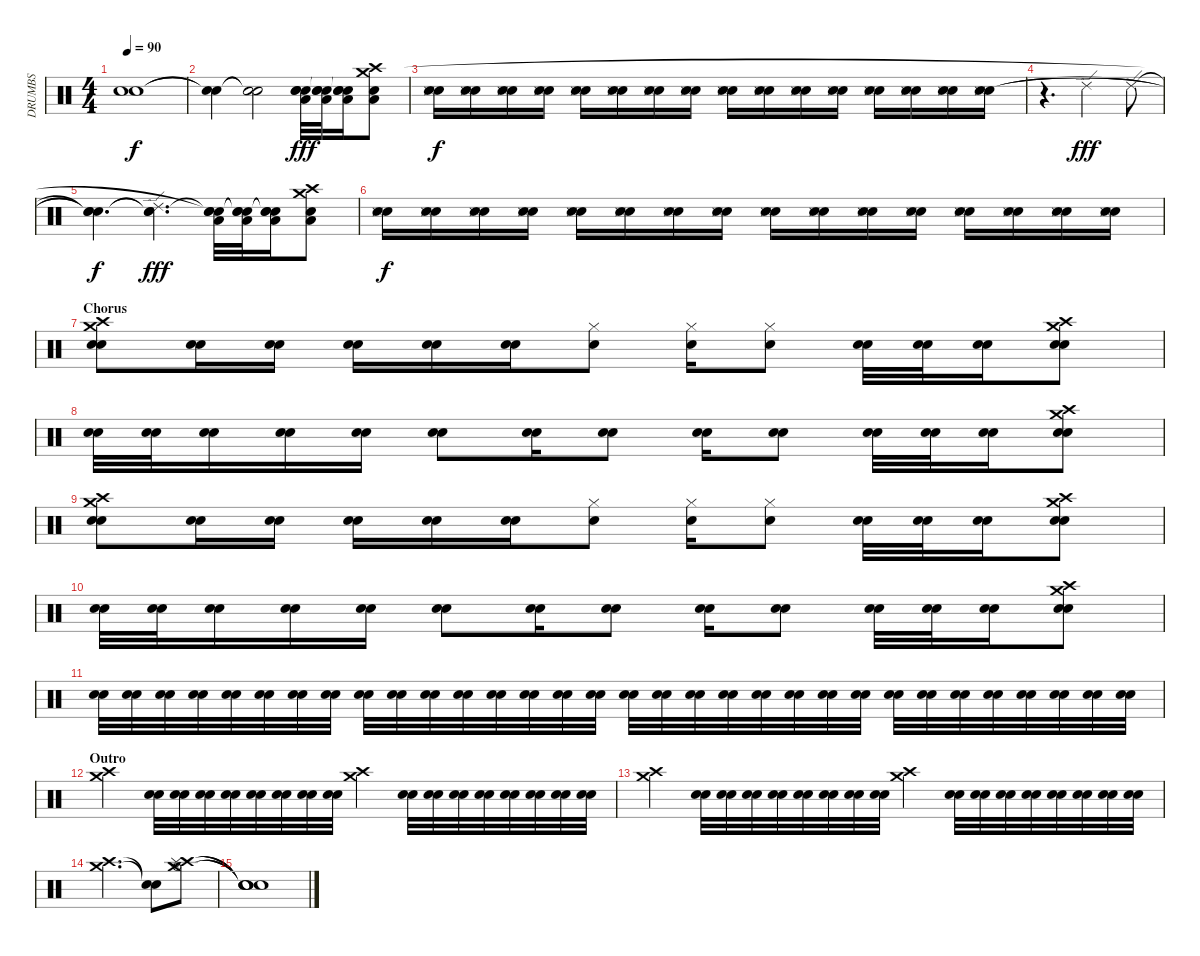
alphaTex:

\track ("DRUMBS" "DRUMBS") {instrument percussion}
\staff {score}
\articulation defaults
\ts (4 4)
\tempo 90
\clef neutral
\ks c
("Snare (hit)"{t} "Snare (hit)"{t}).1{dy f} |
("Snare (hit)"{t} "Snare (hit)"{t}).4 ("Snare (hit)"{t} "Snare (hit)"{t}).2 ("Electric Snare (hit)" "Low Tom (hit)" "Snare (hit)"{t} "Snare (hit)"{t}).32{dy fff} ("Electric Snare (hit)" "Low Tom (hit)" "Snare (hit)"{t} "Snare (hit)"{t}).32 ("Electric Snare (hit)" "Low Tom (hit)" "Snare (hit)"{t} "Snare (hit)"{t}).16 ("Electric Snare (hit)" "Low Tom (hit)" "Crash high (hit)" "Crash medium (hit)").8 |
("Electric Snare (hit)" "Snare (side stick) 3" "Snare (hit) 2").16{dy f} ("Electric Snare (hit)" "Snare (side stick) 3" "Snare (hit) 2").16 ("Electric Snare (hit)" "Snare (side stick) 3" "Snare (hit) 2").16 ("Electric Snare (hit)" "Snare (side stick) 3" "Snare (hit) 2").16 ("Electric Snare (hit)" "Snare (side stick) 3" "Snare (hit) 2").16 ("Electric Snare (hit)" "Snare (side stick) 3" "Snare (hit) 2").16 ("Electric Snare (hit)" "Snare (side stick) 3" "Snare (hit) 2").16 ("Electric Snare (hit)" "Snare (side stick) 3" "Snare (hit) 2").16 ("Electric Snare (hit)" "Snare (side stick) 3" "Snare (hit) 2").16 ("Electric Snare (hit)" "Snare (side stick) 3" "Snare (hit) 2").16 ("Electric Snare (hit)" "Snare (side stick) 3" "Snare (hit) 2").16 ("Electric Snare (hit)" "Snare (side stick) 3" "Snare (hit) 2").16 ("Electric Snare (hit)" "Snare (side stick) 3" "Snare (hit) 2").16 ("Electric Snare (hit)" "Snare (side stick) 3" "Snare (hit) 2").16 ("Electric Snare (hit)" "Snare (side stick) 3" "Snare (hit) 2").16 ("Electric Snare (hit)" "Snare (side stick) 3" "Snare (hit) 2").16 |
r.4{d} "Ride (edge) 2".2{dy fff} "Ride (edge) 2".8 |
("Snare (hit)"{t} "Snare (hit)"{t} "Snare (hit)"{t}).4{d dy f} ("Ride (edge) 2" "Snare (hit)"{t} "Snare (hit)"{t}).4{d dy fff} ("Electric Snare (hit)" "Low Tom (hit)" "Snare (hit)"{t} "Snare (hit)"{t}).32 ("Electric Snare (hit)" "Low Tom (hit)" "Snare (hit)"{t} "Snare (hit)"{t}).32 ("Electric Snare (hit)" "Low Tom (hit)" "Snare (hit)"{t} "Snare (hit)"{t}).16 ("Electric Snare (hit)" "Low Tom (hit)" "Crash high (hit)" "Crash medium (hit)").8 |
("Electric Snare (hit)" "Snare (side stick) 3" "Snare (hit) 2").16{dy f volume 10} ("Electric Snare (hit)" "Snare (side stick) 3" "Snare (hit) 2").16 ("Electric Snare (hit)" "Snare (side stick) 3" "Snare (hit) 2").16 ("Electric Snare (hit)" "Snare (side stick) 3" "Snare (hit) 2").16 ("Electric Snare (hit)" "Snare (side stick) 3" "Snare (hit) 2").16 ("Electric Snare (hit)" "Snare (side stick) 3" "Snare (hit) 2").16 ("Electric Snare (hit)" "Snare (side stick) 3" "Snare (hit) 2").16 ("Electric Snare (hit)" "Snare (side stick) 3" "Snare (hit) 2").16 ("Electric Snare (hit)" "Snare (side stick) 3" "Snare (hit) 2").16 ("Electric Snare (hit)" "Snare (side stick) 3" "Snare (hit) 2").16 ("Electric Snare (hit)" "Snare (side stick) 3" "Snare (hit) 2").16 ("Electric Snare (hit)" "Snare (side stick) 3" "Snare (hit) 2").16 ("Electric Snare (hit)" "Snare (side stick) 3" "Snare (hit) 2").16 ("Electric Snare (hit)" "Snare (side stick) 3" "Snare (hit) 2").16 ("Electric Snare (hit)" "Snare (side stick) 3" "Snare (hit) 2").16 ("Electric Snare (hit)" "Snare (side stick) 3" "Snare (hit) 2").16 |
\section ("" "Chorus")
("Electric Snare (hit)" "Snare (hit) 2" "Crash medium (hit)" "Crash high (hit)").8 ("Electric Snare (hit)" "Snare (hit) 2").16 ("Electric Snare (hit)" "Snare (hit) 2").16 ("Electric Snare (hit)" "Snare (hit) 2").16 ("Electric Snare (hit)" "Snare (hit) 2").16 ("Electric Snare (hit)" "Snare (hit) 2").16 ("Snare (hit) 2" "Hi-Hat (closed)").8 ("Snare (hit) 2" "Hi-Hat (closed)").16 ("Snare (hit) 2" "Hi-Hat (closed)").8 ("Electric Snare (hit)" "Snare (hit) 2").32 ("Electric Snare (hit)" "Snare (hit) 2").32 ("Electric Snare (hit)" "Snare (hit) 2").16 ("Electric Snare (hit)" "Snare (hit) 2" "Crash medium (hit)" "Crash high (hit)").8 |
("Electric Snare (hit)" "Snare (hit) 2").32 ("Electric Snare (hit)" "Snare (hit) 2").32 ("Electric Snare (hit)" "Snare (hit) 2").16 ("Electric Snare (hit)" "Snare (hit) 2").16 ("Electric Snare (hit)" "Snare (hit) 2").16 ("Electric Snare (hit)" "Snare (hit) 2").8 ("Electric Snare (hit)" "Snare (hit) 2").16 ("Electric Snare (hit)" "Snare (hit) 2").8 ("Electric Snare (hit)" "Snare (hit) 2").16 ("Electric Snare (hit)" "Snare (hit) 2").8 ("Electric Snare (hit)" "Snare (hit) 2").32 ("Electric Snare (hit)" "Snare (hit) 2").32 ("Electric Snare (hit)" "Snare (hit) 2").16 ("Electric Snare (hit)" "Snare (hit) 2" "Crash medium (hit)" "Crash high (hit)").8 |
("Electric Snare (hit)" "Snare (hit) 2" "Crash medium (hit)" "Crash high (hit)").8 ("Electric Snare (hit)" "Snare (hit) 2").16 ("Electric Snare (hit)" "Snare (hit) 2").16 ("Electric Snare (hit)" "Snare (hit) 2").16 ("Electric Snare (hit)" "Snare (hit) 2").16 ("Electric Snare (hit)" "Snare (hit) 2").16 ("Snare (hit) 2" "Hi-Hat (closed)").8 ("Snare (hit) 2" "Hi-Hat (closed)").16 ("Snare (hit) 2" "Hi-Hat (closed)").8 ("Electric Snare (hit)" "Snare (hit) 2").32 ("Electric Snare (hit)" "Snare (hit) 2").32 ("Electric Snare (hit)" "Snare (hit) 2").16 ("Electric Snare (hit)" "Snare (hit) 2" "Crash medium (hit)" "Crash high (hit)").8 |
("Electric Snare (hit)" "Snare (hit) 2").32 ("Electric Snare (hit)" "Snare (hit) 2").32 ("Electric Snare (hit)" "Snare (hit) 2").16 ("Electric Snare (hit)" "Snare (hit) 2").16 ("Electric Snare (hit)" "Snare (hit) 2").16 ("Electric Snare (hit)" "Snare (hit) 2").8 ("Electric Snare (hit)" "Snare (hit) 2").16 ("Electric Snare (hit)" "Snare (hit) 2").8 ("Electric Snare (hit)" "Snare (hit) 2").16 ("Electric Snare (hit)" "Snare (hit) 2").8 ("Electric Snare (hit)" "Snare (hit) 2").32 ("Electric Snare (hit)" "Snare (hit) 2").32 ("Electric Snare (hit)" "Snare (hit) 2").16 ("Electric Snare (hit)" "Snare (hit) 2" "Crash medium (hit)" "Crash high (hit)").8 |
("Snare (hit) 2" "Electric Snare (hit)").32 ("Snare (hit) 2" "Electric Snare (hit)").32 ("Snare (hit) 2" "Electric Snare (hit)").32 ("Snare (hit) 2" "Electric Snare (hit)").32 ("Snare (hit) 2" "Electric Snare (hit)").32 ("Snare (hit) 2" "Electric Snare (hit)").32 ("Snare (hit) 2" "Electric Snare (hit)").32 ("Snare (hit) 2" "Electric Snare (hit)").32 ("Snare (hit) 2" "Electric Snare (hit)").32 ("Snare (hit) 2" "Electric Snare (hit)").32 ("Snare (hit) 2" "Electric Snare (hit)").32 ("Snare (hit) 2" "Electric Snare (hit)").32 ("Snare (hit) 2" "Electric Snare (hit)").32 ("Snare (hit) 2" "Electric Snare (hit)").32 ("Snare (hit) 2" "Electric Snare (hit)").32 ("Snare (hit) 2" "Electric Snare (hit)").32 ("Snare (hit) 2" "Electric Snare (hit)").32 ("Snare (hit) 2" "Electric Snare (hit)").32 ("Snare (hit) 2" "Electric Snare (hit)").32 ("Snare (hit) 2" "Electric Snare (hit)").32 ("Snare (hit) 2" "Electric Snare (hit)").32 ("Snare (hit) 2" "Electric Snare (hit)").32 ("Snare (hit) 2" "Electric Snare (hit)").32 ("Snare (hit) 2" "Electric Snare (hit)").32 ("Snare (hit) 2" "Electric Snare (hit)").32 ("Snare (hit) 2" "Electric Snare (hit)").32 ("Snare (hit) 2" "Electric Snare (hit)").32 ("Snare (hit) 2" "Electric Snare (hit)").32 ("Snare (hit) 2" "Electric Snare (hit)").32 ("Snare (hit) 2" "Electric Snare (hit)").32 ("Snare (hit) 2" "Electric Snare (hit)").32 ("Snare (hit) 2" "Electric Snare (hit)").32 |
\section ("" "Outro")
("Crash medium (hit)" "Crash high (hit)").4 ("Electric Snare (hit)" "Snare (hit) 2").32 ("Electric Snare (hit)" "Snare (hit) 2").32 ("Electric Snare (hit)" "Snare (hit) 2").32 ("Electric Snare (hit)" "Snare (hit) 2").32 ("Electric Snare (hit)" "Snare (hit) 2").32 ("Electric Snare (hit)" "Snare (hit) 2").32 ("Electric Snare (hit)" "Snare (hit) 2").32 ("Electric Snare (hit)" "Snare (hit) 2").32 ("Crash medium (hit)" "Crash high (hit)").4 ("Electric Snare (hit)" "Snare (hit) 2").32 ("Electric Snare (hit)" "Snare (hit) 2").32 ("Electric Snare (hit)" "Snare (hit) 2").32 ("Electric Snare (hit)" "Snare (hit) 2").32 ("Electric Snare (hit)" "Snare (hit) 2").32 ("Electric Snare (hit)" "Snare (hit) 2").32 ("Electric Snare (hit)" "Snare (hit) 2").32 ("Electric Snare (hit)" "Snare (hit) 2").32 |
("Crash high (hit)" "Crash medium (hit)").4 ("Electric Snare (hit)" "Snare (hit) 2").32 ("Electric Snare (hit)" "Snare (hit) 2").32 ("Electric Snare (hit)" "Snare (hit) 2").32 ("Electric Snare (hit)" "Snare (hit) 2").32 ("Electric Snare (hit)" "Snare (hit) 2").32 ("Electric Snare (hit)" "Snare (hit) 2").32 ("Electric Snare (hit)" "Snare (hit) 2").32 ("Electric Snare (hit)" "Snare (hit) 2").32 ("Crash medium (hit)" "Crash high (hit)").4 ("Electric Snare (hit)" "Snare (hit) 2").32 ("Electric Snare (hit)" "Snare (hit) 2").32 ("Electric Snare (hit)" "Snare (hit) 2").32 ("Electric Snare (hit)" "Snare (hit) 2").32 ("Electric Snare (hit)" "Snare (hit) 2").32 ("Electric Snare (hit)" "Snare (hit) 2").32 ("Electric Snare (hit)" "Snare (hit) 2").32 ("Electric Snare (hit)" "Snare (hit) 2").32 |
("Crash high (hit)" "Crash medium (hit)").2{d} ("Snare (hit)"{t} "Snare (hit)"{t}).8 ("Crash high (hit)" "Crash medium (hit)" "Splash (hit)" "Hi-Hat (open)").8 |
("Snare (hit)"{t} "Snare (hit)"{t} "Snare (hit)"{t} "Snare (hit)"{t}).1
